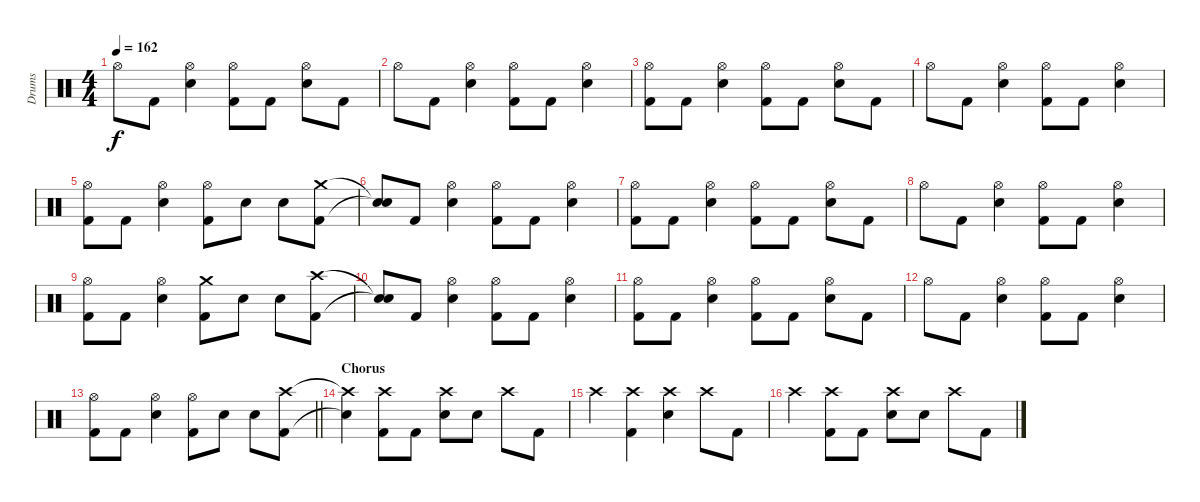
\track ("Drums" "Drums") {instrument percussion}
\staff {score}
\articulation defaults
\ts (4 4)
\tempo 162
\clef neutral
\ks c "Hi-Hat (open)".8{dy f} "Kick (hit) 2".8
("Snare (hit) 2" "Hi-Hat (open)").4 ("Hi-Hat (open)" "Kick (hit) 2").8 "Kick (hit) 2".8 ("Snare (hit) 2" "Hi-Hat (open)").8 "Kick (hit) 2".8 |
"Hi-Hat (open)".8 "Kick (hit) 2".8 ("Snare (hit) 2" "Hi-Hat (open)").4 ("Hi-Hat (open)" "Kick (hit) 2").8 "Kick (hit) 2".8 ("Snare (hit) 2" "Hi-Hat (open)").4 |
("Hi-Hat (open)" "Kick (hit) 2").8 "Kick (hit) 2".8 ("Snare (hit) 2" "Hi-Hat (open)").4 ("Hi-Hat (open)" "Kick (hit) 2").8 "Kick (hit) 2".8 ("Snare (hit) 2" "Hi-Hat (open)").8 "Kick (hit) 2".8 |
"Hi-Hat (open)".8 "Kick (hit) 2".8 ("Snare (hit) 2" "Hi-Hat (open)").4 ("Hi-Hat (open)" "Kick (hit) 2").8 "Kick (hit) 2".8 ("Snare (hit) 2" "Hi-Hat (open)").4 |
("Hi-Hat (open)" "Kick (hit) 2").8 "Kick (hit) 2".8 ("Snare (hit) 2" "Hi-Hat (open)").4 ("Hi-Hat (open)" "Kick (hit) 2").8 "Snare (hit) 2".8 "Snare (hit) 2".8 ("Crash medium (hit)" "Kick (hit) 2").8 |
("Snare (hit)"{t} "Snare (hit)"{t}).8 "Kick (hit) 2".8 ("Snare (hit) 2" "Hi-Hat (open)").4 ("Hi-Hat (open)" "Kick (hit) 2").8 "Kick (hit) 2".8 ("Snare (hit) 2" "Hi-Hat (open)").4 |
("Hi-Hat (open)" "Kick (hit) 2").8 "Kick (hit) 2".8 ("Snare (hit) 2" "Hi-Hat (open)").4 ("Hi-Hat (open)" "Kick (hit) 2").8 "Kick (hit) 2".8 ("Snare (hit) 2" "Hi-Hat (open)").8 "Kick (hit) 2".8 |
"Hi-Hat (open)".8 "Kick (hit) 2".8 ("Snare (hit) 2" "Hi-Hat (open)").4 ("Hi-Hat (open)" "Kick (hit) 2").8 "Kick (hit) 2".8 ("Snare (hit) 2" "Hi-Hat (open)").4 |
("Hi-Hat (open)" "Kick (hit) 2").8 "Kick (hit) 2".8 ("Snare (hit) 2" "Hi-Hat (open)").4 ("Crash medium (hit)" "Kick (hit) 2").8 "Snare (hit) 2".8 "Snare (hit) 2".8 ("Crash high (hit)" "Kick (hit) 2").8 |
("Snare (hit)"{t} "Snare (hit)"{t}).8 "Kick (hit) 2".8 ("Snare (hit) 2" "Hi-Hat (open)").4 ("Hi-Hat (open)" "Kick (hit) 2").8 "Kick (hit) 2".8 ("Snare (hit) 2" "Hi-Hat (open)").4 |
("Hi-Hat (open)" "Kick (hit) 2").8 "Kick (hit) 2".8 ("Snare (hit) 2" "Hi-Hat (open)").4 ("Hi-Hat (open)" "Kick (hit) 2").8 "Kick (hit) 2".8 ("Snare (hit) 2" "Hi-Hat (open)").8 "Kick (hit) 2".8 |
"Hi-Hat (open)".8 "Kick (hit) 2".8 ("Snare (hit) 2" "Hi-Hat (open)").4 ("Hi-Hat (open)" "Kick (hit) 2").8 "Kick (hit) 2".8 ("Snare (hit) 2" "Hi-Hat (open)").4 |
\barLineRight lightlight
("Hi-Hat (open)" "Kick (hit) 2").8 "Kick (hit) 2".8 ("Snare (hit) 2" "Hi-Hat (open)").4 ("Hi-Hat (open)" "Kick (hit) 2").8 "Snare (hit) 2".8 "Snare (hit) 2".8 ("Crash high (hit)" "Kick (hit) 2").8 |
\section ("" "Chorus")
("Crash high (hit)"{t} "Snare (hit)"{t}).4 ("Crash high (hit)" "Kick (hit) 2").8 "Kick (hit) 2".8 ("Crash high (hit)" "Snare (hit) 2").8 "Snare (hit) 2".8 "Crash high (hit)".8 "Kick (hit) 2".8 |
"Crash high (hit)".4 ("Crash high (hit)" "Kick (hit) 2").4 ("Crash high (hit)" "Snare (hit) 2").4 "Crash high (hit)".8 "Kick (hit) 2".8 |
"Crash high (hit)".4 ("Crash high (hit)" "Kick (hit) 2").8 "Kick (hit) 2".8 ("Crash high (hit)" "Snare (hit) 2").8 "Snare (hit) 2".8 "Crash high (hit)".8 "Kick (hit) 2".8
